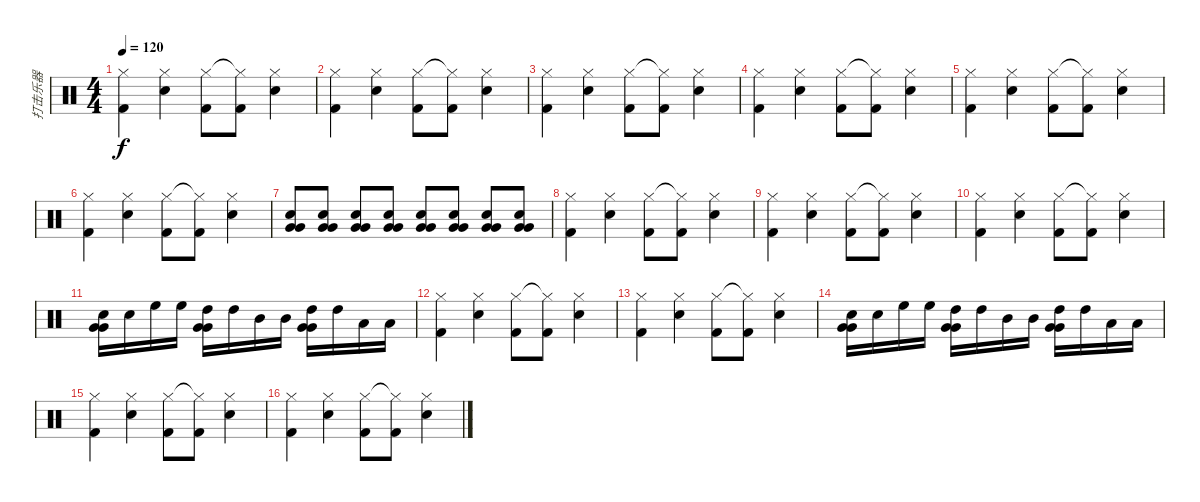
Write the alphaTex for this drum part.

\track ("打击乐器" "打击乐器") {instrument percussion}
\staff {score}
\articulation defaults
\ts (4 4)
\tempo 120
\clef neutral
\ks c
("Hi-Hat (closed)" "Kick (hit) 2").4{dy f} ("Hi-Hat (closed)" "Snare (hit) 2").4 ("Hi-Hat (closed)" "Kick (hit) 2").8 ("Hi-Hat (closed)"{t} "Kick (hit) 2").8 ("Hi-Hat (closed)" "Snare (hit) 2").4 |
("Hi-Hat (closed)" "Kick (hit) 2").4 ("Hi-Hat (closed)" "Snare (hit) 2").4 ("Hi-Hat (closed)" "Kick (hit) 2").8 ("Hi-Hat (closed)"{t} "Kick (hit) 2").8 ("Hi-Hat (closed)" "Snare (hit) 2").4 |
("Hi-Hat (closed)" "Kick (hit) 2").4 ("Hi-Hat (closed)" "Snare (hit) 2").4 ("Hi-Hat (closed)" "Kick (hit) 2").8 ("Hi-Hat (closed)"{t} "Kick (hit) 2").8 ("Hi-Hat (closed)" "Snare (hit) 2").4 |
("Hi-Hat (closed)" "Kick (hit) 2").4 ("Hi-Hat (closed)" "Snare (hit) 2").4 ("Hi-Hat (closed)" "Kick (hit) 2").8 ("Hi-Hat (closed)"{t} "Kick (hit) 2").8 ("Hi-Hat (closed)" "Snare (hit) 2").4 |
("Hi-Hat (closed)" "Kick (hit) 2").4 ("Hi-Hat (closed)" "Snare (hit) 2").4 ("Hi-Hat (closed)" "Kick (hit) 2").8 ("Hi-Hat (closed)"{t} "Kick (hit) 2").8 ("Hi-Hat (closed)" "Snare (hit) 2").4 |
("Hi-Hat (closed)" "Kick (hit) 2").4 ("Hi-Hat (closed)" "Snare (hit) 2").4 ("Hi-Hat (closed)" "Kick (hit) 2").8 ("Hi-Hat (closed)"{t} "Kick (hit) 2").8 ("Hi-Hat (closed)" "Snare (hit) 2").4 |
("Electric Snare (hit)" "Very Low Tom (hit)" "Very Low Tom (hit)").8 ("Electric Snare (hit)" "Very Low Tom (hit)" "Very Low Tom (hit)").8 ("Electric Snare (hit)" "Very Low Tom (hit)" "Very Low Tom (hit)").8 ("Electric Snare (hit)" "Very Low Tom (hit)" "Very Low Tom (hit)").8 ("Electric Snare (hit)" "Very Low Tom (hit)" "Very Low Tom (hit)").8 ("Electric Snare (hit)" "Very Low Tom (hit)" "Very Low Tom (hit)").8 ("Electric Snare (hit)" "Very Low Tom (hit)" "Very Low Tom (hit)").8 ("Electric Snare (hit)" "Very Low Tom (hit)" "Very Low Tom (hit)").8 |
("Hi-Hat (closed)" "Kick (hit) 2").4 ("Hi-Hat (closed)" "Snare (hit) 2").4 ("Hi-Hat (closed)" "Kick (hit) 2").8 ("Hi-Hat (closed)"{t} "Kick (hit) 2").8 ("Hi-Hat (closed)" "Snare (hit) 2").4 |
("Hi-Hat (closed)" "Kick (hit) 2").4 ("Hi-Hat (closed)" "Snare (hit) 2").4 ("Hi-Hat (closed)" "Kick (hit) 2").8 ("Hi-Hat (closed)"{t} "Kick (hit) 2").8 ("Hi-Hat (closed)" "Snare (hit) 2").4 |
("Hi-Hat (closed)" "Kick (hit) 2").4 ("Hi-Hat (closed)" "Snare (hit) 2").4 ("Hi-Hat (closed)" "Kick (hit) 2").8 ("Hi-Hat (closed)"{t} "Kick (hit) 2").8 ("Hi-Hat (closed)" "Snare (hit) 2").4 |
("Electric Snare (hit)" "Very Low Tom (hit)" "Very Low Tom (hit)").16 "Electric Snare (hit)".16 "High Floor Tom (hit)".16 "High Floor Tom (hit)".16 ("High Tom (hit)" "Very Low Tom (hit)" "Very Low Tom (hit)").16 "High Tom (hit)".16 "Mid Tom (hit)".16 "Mid Tom (hit)".16 ("High Tom (hit)" "Very Low Tom (hit)" "Very Low Tom (hit)").16 "High Tom (hit)".16 "Low Tom (hit)".16 "Low Tom (hit)".16 |
("Hi-Hat (closed)" "Kick (hit) 2").4 ("Hi-Hat (closed)" "Snare (hit) 2").4 ("Hi-Hat (closed)" "Kick (hit) 2").8 ("Hi-Hat (closed)"{t} "Kick (hit) 2").8 ("Hi-Hat (closed)" "Snare (hit) 2").4 |
("Hi-Hat (closed)" "Kick (hit) 2").4 ("Hi-Hat (closed)" "Snare (hit) 2").4 ("Hi-Hat (closed)" "Kick (hit) 2").8 ("Hi-Hat (closed)"{t} "Kick (hit) 2").8 ("Hi-Hat (closed)" "Snare (hit) 2").4 |
("Electric Snare (hit)" "Very Low Tom (hit)" "Very Low Tom (hit)").16 "Electric Snare (hit)".16 "High Floor Tom (hit)".16 "High Floor Tom (hit)".16 ("High Tom (hit)" "Very Low Tom (hit)" "Very Low Tom (hit)").16 "High Tom (hit)".16 "Mid Tom (hit)".16 "Mid Tom (hit)".16 ("High Tom (hit)" "Very Low Tom (hit)" "Very Low Tom (hit)").16 "High Tom (hit)".16 "Low Tom (hit)".16 "Low Tom (hit)".16 |
("Hi-Hat (closed)" "Kick (hit) 2").4 ("Hi-Hat (closed)" "Snare (hit) 2").4 ("Hi-Hat (closed)" "Kick (hit) 2").8 ("Hi-Hat (closed)"{t} "Kick (hit) 2").8 ("Hi-Hat (closed)" "Snare (hit) 2").4 |
("Hi-Hat (closed)" "Kick (hit) 2").4 ("Hi-Hat (closed)" "Snare (hit) 2").4 ("Hi-Hat (closed)" "Kick (hit) 2").8 ("Hi-Hat (closed)"{t} "Kick (hit) 2").8 ("Hi-Hat (closed)" "Snare (hit) 2").4
